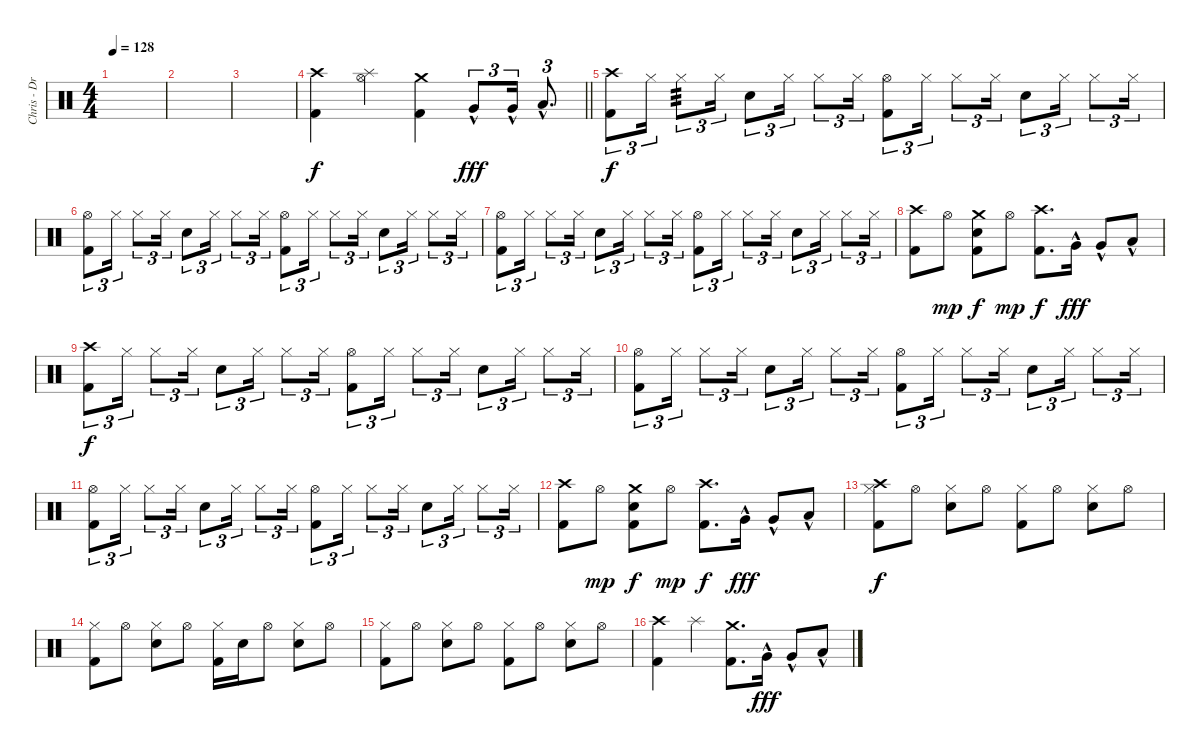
\track ("Chris - Drums" "Chris - Dr") {instrument percussion}
\staff {score}
\articulation defaults
\ts (4 4)
\tempo 128
\tempo 125
\tempo 128
\clef neutral
\ks c
|
|
|
\barLineRight lightlight
("Crash high (hit)" "Kick (hit) 2").4 ("Hi-Hat (open)" "Splash (hit)").4 ("Crash medium (hit)" "Kick (hit) 2").4 "Very Low Tom (hit)"{hac}.8{tu (3 2) dy fff} "Very Low Tom (hit)"{hac}.16{tu (3 2)} "Low Floor Tom (hit)"{hac}.8{d tu (3 2)} |
("Crash high (hit)" "Kick (hit) 2").8{tu (3 2) dy f} "Hi-Hat (closed)".16{tu (3 2)} "Hi-Hat (closed)".8{tu (3 2) tp 3} "Hi-Hat (closed)".16{tu (3 2)} "Electric Snare (hit)".8{tu (3 2)} "Hi-Hat (closed)".16{tu (3 2)} "Hi-Hat (closed)".8{tu (3 2)} "Hi-Hat (closed)".16{tu (3 2)} ("Hi-Hat (open)" "Kick (hit) 2").8{tu (3 2)} "Hi-Hat (closed)".16{tu (3 2)} "Hi-Hat (closed)".8{tu (3 2)} "Hi-Hat (closed)".16{tu (3 2)} "Electric Snare (hit)".8{tu (3 2)} "Hi-Hat (closed)".16{tu (3 2)} "Hi-Hat (closed)".8{tu (3 2)} "Hi-Hat (closed)".16{tu (3 2)} |
("Hi-Hat (open)" "Kick (hit) 2").8{tu (3 2)} "Hi-Hat (closed)".16{tu (3 2)} "Hi-Hat (closed)".8{tu (3 2)} "Hi-Hat (closed)".16{tu (3 2)} "Electric Snare (hit)".8{tu (3 2)} "Hi-Hat (closed)".16{tu (3 2)} "Hi-Hat (closed)".8{tu (3 2)} "Hi-Hat (closed)".16{tu (3 2)} ("Hi-Hat (open)" "Kick (hit) 2").8{tu (3 2)} "Hi-Hat (closed)".16{tu (3 2)} "Hi-Hat (closed)".8{tu (3 2)} "Hi-Hat (closed)".16{tu (3 2)} "Electric Snare (hit)".8{tu (3 2)} "Hi-Hat (closed)".16{tu (3 2)} "Hi-Hat (closed)".8{tu (3 2)} "Hi-Hat (closed)".16{tu (3 2)} |
("Hi-Hat (open)" "Kick (hit) 2").8{tu (3 2)} "Hi-Hat (closed)".16{tu (3 2)} "Hi-Hat (closed)".8{tu (3 2)} "Hi-Hat (closed)".16{tu (3 2)} "Electric Snare (hit)".8{tu (3 2)} "Hi-Hat (closed)".16{tu (3 2)} "Hi-Hat (closed)".8{tu (3 2)} "Hi-Hat (closed)".16{tu (3 2)} ("Hi-Hat (open)" "Kick (hit) 2").8{tu (3 2)} "Hi-Hat (closed)".16{tu (3 2)} "Hi-Hat (closed)".8{tu (3 2)} "Hi-Hat (closed)".16{tu (3 2)} "Electric Snare (hit)".8{tu (3 2)} "Hi-Hat (closed)".16{tu (3 2)} "Hi-Hat (closed)".8{tu (3 2)} "Hi-Hat (closed)".16{tu (3 2)} |
("Crash high (hit)" "Kick (hit) 2").8 "Hi-Hat (open)".8{dy mp} ("Crash medium (hit)" "Electric Snare (hit)" "Kick (hit) 2").8{dy f} "Hi-Hat (open)".8{dy mp} ("Crash high (hit)" "Kick (hit) 2").8{d dy f} "Very Low Tom (hit)"{hac}.16{dy fff} "Very Low Tom (hit)"{hac}.8 "Low Floor Tom (hit)"{hac}.8 |
("Crash high (hit)" "Kick (hit) 2").8{tu (3 2) dy f} "Hi-Hat (closed)".16{tu (3 2)} "Hi-Hat (closed)".8{tu (3 2)} "Hi-Hat (closed)".16{tu (3 2)} "Electric Snare (hit)".8{tu (3 2)} "Hi-Hat (closed)".16{tu (3 2)} "Hi-Hat (closed)".8{tu (3 2)} "Hi-Hat (closed)".16{tu (3 2)} ("Hi-Hat (open)" "Kick (hit) 2").8{tu (3 2)} "Hi-Hat (closed)".16{tu (3 2)} "Hi-Hat (closed)".8{tu (3 2)} "Hi-Hat (closed)".16{tu (3 2)} "Electric Snare (hit)".8{tu (3 2)} "Hi-Hat (closed)".16{tu (3 2)} "Hi-Hat (closed)".8{tu (3 2)} "Hi-Hat (closed)".16{tu (3 2)} |
("Hi-Hat (open)" "Kick (hit) 2").8{tu (3 2)} "Hi-Hat (closed)".16{tu (3 2)} "Hi-Hat (closed)".8{tu (3 2)} "Hi-Hat (closed)".16{tu (3 2)} "Electric Snare (hit)".8{tu (3 2)} "Hi-Hat (closed)".16{tu (3 2)} "Hi-Hat (closed)".8{tu (3 2)} "Hi-Hat (closed)".16{tu (3 2)} ("Hi-Hat (open)" "Kick (hit) 2").8{tu (3 2)} "Hi-Hat (closed)".16{tu (3 2)} "Hi-Hat (closed)".8{tu (3 2)} "Hi-Hat (closed)".16{tu (3 2)} "Electric Snare (hit)".8{tu (3 2)} "Hi-Hat (closed)".16{tu (3 2)} "Hi-Hat (closed)".8{tu (3 2)} "Hi-Hat (closed)".16{tu (3 2)} |
("Hi-Hat (open)" "Kick (hit) 2").8{tu (3 2)} "Hi-Hat (closed)".16{tu (3 2)} "Hi-Hat (closed)".8{tu (3 2)} "Hi-Hat (closed)".16{tu (3 2)} "Electric Snare (hit)".8{tu (3 2)} "Hi-Hat (closed)".16{tu (3 2)} "Hi-Hat (closed)".8{tu (3 2)} "Hi-Hat (closed)".16{tu (3 2)} ("Hi-Hat (open)" "Kick (hit) 2").8{tu (3 2)} "Hi-Hat (closed)".16{tu (3 2)} "Hi-Hat (closed)".8{tu (3 2)} "Hi-Hat (closed)".16{tu (3 2)} "Electric Snare (hit)".8{tu (3 2)} "Hi-Hat (closed)".16{tu (3 2)} "Hi-Hat (closed)".8{tu (3 2)} "Hi-Hat (closed)".16{tu (3 2)} |
("Crash high (hit)" "Kick (hit) 2").8 "Hi-Hat (open)".8{dy mp} ("Crash medium (hit)" "Electric Snare (hit)" "Kick (hit) 2").8{dy f} "Hi-Hat (open)".8{dy mp} ("Crash high (hit)" "Kick (hit) 2").8{d dy f} "Very Low Tom (hit)"{hac}.16{dy fff} "Very Low Tom (hit)"{hac}.8 "Low Floor Tom (hit)"{hac}.8 |
("Crash high (hit)" "Hi-Hat (closed)" "Kick (hit) 2").8{dy f} "Hi-Hat (open)".8 ("Hi-Hat (closed)" "Electric Snare (hit)").8 "Hi-Hat (open)".8 ("Hi-Hat (closed)" "Kick (hit) 2").8 "Hi-Hat (open)".8 ("Hi-Hat (closed)" "Electric Snare (hit)").8 "Hi-Hat (open)".8 |
("Hi-Hat (closed)" "Kick (hit) 2").8 "Hi-Hat (open)".8 ("Hi-Hat (closed)" "Electric Snare (hit)").8 "Hi-Hat (open)".8 ("Hi-Hat (closed)" "Kick (hit) 2").16 "Electric Snare (hit)".16 "Hi-Hat (open)".8 ("Hi-Hat (closed)" "Electric Snare (hit)").8 "Hi-Hat (open)".8 |
("Hi-Hat (closed)" "Kick (hit) 2").8 "Hi-Hat (open)".8 ("Hi-Hat (closed)" "Electric Snare (hit)").8 "Hi-Hat (open)".8 ("Hi-Hat (closed)" "Kick (hit) 2").8 "Hi-Hat (open)".8 ("Hi-Hat (closed)" "Electric Snare (hit)").8 "Hi-Hat (open)".8 |
("Crash high (hit)" "Kick (hit) 2").4 "Splash (hit)".4 ("Crash medium (hit)" "Kick (hit) 2").8{d} "Very Low Tom (hit)"{hac}.16{dy fff} "Very Low Tom (hit)"{hac}.8 "Low Floor Tom (hit)"{hac}.8
